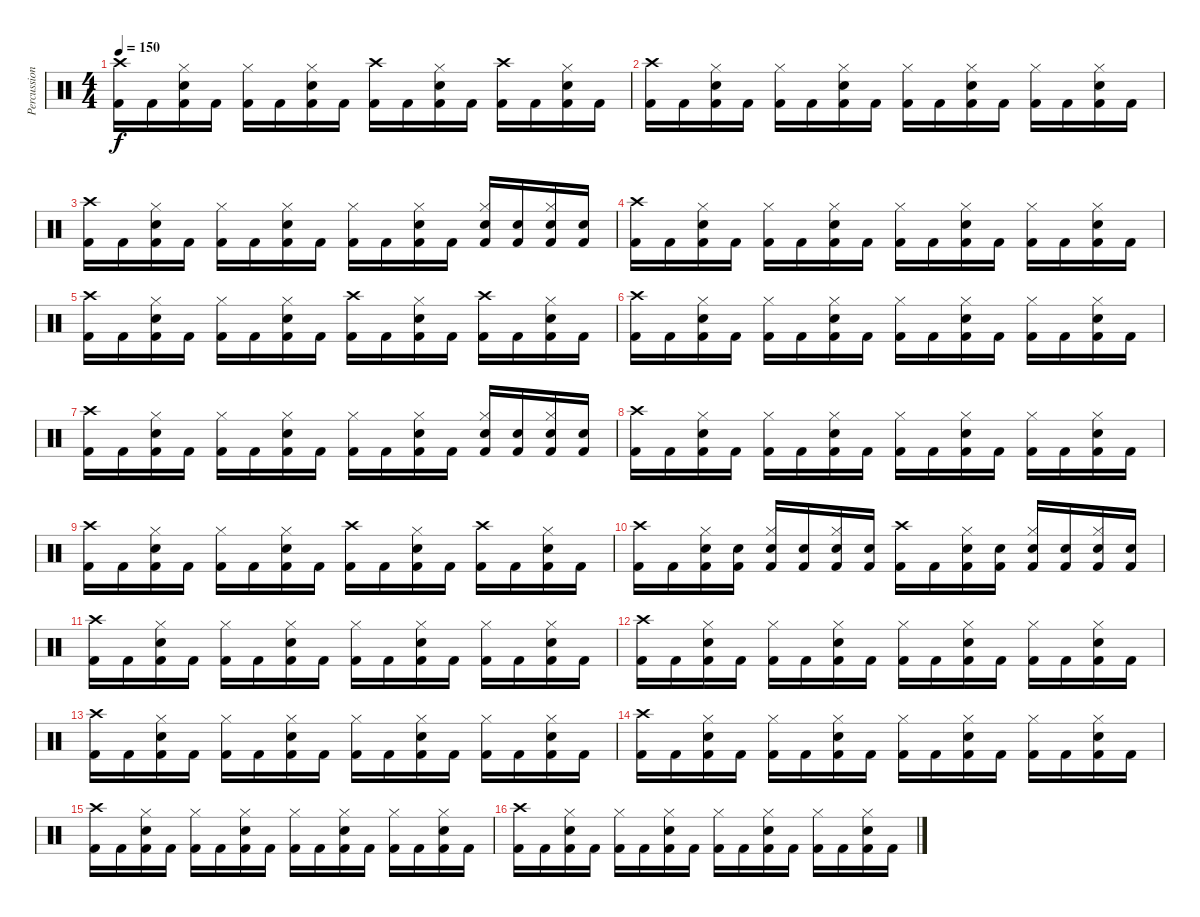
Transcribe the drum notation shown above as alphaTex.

\track ("Percussion" "Percussion") {instrument percussion}
\staff {score}
\articulation defaults
\ts (4 4)
\tempo 150
\clef neutral
\ks c
("Crash high (hit)" "Kick (hit) 2").16{dy f} "Kick (hit) 2".16 ("Hi-Hat (closed)" "Snare (hit) 2" "Kick (hit) 2").16 "Kick (hit) 2".16 ("Hi-Hat (closed)" "Kick (hit) 2").16 "Kick (hit) 2".16 ("Hi-Hat (closed)" "Snare (hit) 2" "Kick (hit) 2").16 "Kick (hit) 2".16 ("Crash high (hit)" "Kick (hit) 2").16 "Kick (hit) 2".16 ("Hi-Hat (closed)" "Snare (hit) 2" "Kick (hit) 2").16 "Kick (hit) 2".16 ("Crash high (hit)" "Kick (hit) 2").16 "Kick (hit) 2".16 ("Hi-Hat (closed)" "Snare (hit) 2" "Kick (hit) 2").16 "Kick (hit) 2".16 |
("Crash high (hit)" "Kick (hit) 2").16 "Kick (hit) 2".16 ("Hi-Hat (closed)" "Snare (hit) 2" "Kick (hit) 2").16 "Kick (hit) 2".16 ("Hi-Hat (closed)" "Kick (hit) 2").16 "Kick (hit) 2".16 ("Hi-Hat (closed)" "Snare (hit) 2" "Kick (hit) 2").16 "Kick (hit) 2".16 ("Hi-Hat (closed)" "Kick (hit) 2").16 "Kick (hit) 2".16 ("Hi-Hat (closed)" "Snare (hit) 2" "Kick (hit) 2").16 "Kick (hit) 2".16 ("Hi-Hat (closed)" "Kick (hit) 2").16 "Kick (hit) 2".16 ("Hi-Hat (closed)" "Snare (hit) 2" "Kick (hit) 2").16 "Kick (hit) 2".16 |
("Crash high (hit)" "Kick (hit) 2").16 "Kick (hit) 2".16 ("Hi-Hat (closed)" "Snare (hit) 2" "Kick (hit) 2").16 "Kick (hit) 2".16 ("Hi-Hat (closed)" "Kick (hit) 2").16 "Kick (hit) 2".16 ("Hi-Hat (closed)" "Snare (hit) 2" "Kick (hit) 2").16 "Kick (hit) 2".16 ("Hi-Hat (closed)" "Kick (hit) 2").16 "Kick (hit) 2".16 ("Hi-Hat (closed)" "Snare (hit) 2" "Kick (hit) 2").16 "Kick (hit) 2".16 ("Hi-Hat (closed)" "Snare (hit) 2" "Kick (hit) 2").16 ("Snare (hit) 2" "Kick (hit) 2").16 ("Hi-Hat (closed)" "Snare (hit) 2" "Kick (hit) 2").16 ("Snare (hit) 2" "Kick (hit) 2").16 |
("Crash high (hit)" "Kick (hit) 2").16 "Kick (hit) 2".16 ("Hi-Hat (closed)" "Snare (hit) 2" "Kick (hit) 2").16 "Kick (hit) 2".16 ("Hi-Hat (closed)" "Kick (hit) 2").16 "Kick (hit) 2".16 ("Hi-Hat (closed)" "Snare (hit) 2" "Kick (hit) 2").16 "Kick (hit) 2".16 ("Hi-Hat (closed)" "Kick (hit) 2").16 "Kick (hit) 2".16 ("Hi-Hat (closed)" "Snare (hit) 2" "Kick (hit) 2").16 "Kick (hit) 2".16 ("Hi-Hat (closed)" "Kick (hit) 2").16 "Kick (hit) 2".16 ("Hi-Hat (closed)" "Snare (hit) 2" "Kick (hit) 2").16 "Kick (hit) 2".16 |
("Crash high (hit)" "Kick (hit) 2").16 "Kick (hit) 2".16 ("Hi-Hat (closed)" "Snare (hit) 2" "Kick (hit) 2").16 "Kick (hit) 2".16 ("Hi-Hat (closed)" "Kick (hit) 2").16 "Kick (hit) 2".16 ("Hi-Hat (closed)" "Snare (hit) 2" "Kick (hit) 2").16 "Kick (hit) 2".16 ("Crash high (hit)" "Kick (hit) 2").16 "Kick (hit) 2".16 ("Hi-Hat (closed)" "Snare (hit) 2" "Kick (hit) 2").16 "Kick (hit) 2".16 ("Crash high (hit)" "Kick (hit) 2").16 "Kick (hit) 2".16 ("Hi-Hat (closed)" "Snare (hit) 2" "Kick (hit) 2").16 "Kick (hit) 2".16 |
("Crash high (hit)" "Kick (hit) 2").16 "Kick (hit) 2".16 ("Hi-Hat (closed)" "Snare (hit) 2" "Kick (hit) 2").16 "Kick (hit) 2".16 ("Hi-Hat (closed)" "Kick (hit) 2").16 "Kick (hit) 2".16 ("Hi-Hat (closed)" "Snare (hit) 2" "Kick (hit) 2").16 "Kick (hit) 2".16 ("Hi-Hat (closed)" "Kick (hit) 2").16 "Kick (hit) 2".16 ("Hi-Hat (closed)" "Snare (hit) 2" "Kick (hit) 2").16 "Kick (hit) 2".16 ("Hi-Hat (closed)" "Kick (hit) 2").16 "Kick (hit) 2".16 ("Hi-Hat (closed)" "Snare (hit) 2" "Kick (hit) 2").16 "Kick (hit) 2".16 |
("Crash high (hit)" "Kick (hit) 2").16 "Kick (hit) 2".16 ("Hi-Hat (closed)" "Snare (hit) 2" "Kick (hit) 2").16 "Kick (hit) 2".16 ("Hi-Hat (closed)" "Kick (hit) 2").16 "Kick (hit) 2".16 ("Hi-Hat (closed)" "Snare (hit) 2" "Kick (hit) 2").16 "Kick (hit) 2".16 ("Hi-Hat (closed)" "Kick (hit) 2").16 "Kick (hit) 2".16 ("Hi-Hat (closed)" "Snare (hit) 2" "Kick (hit) 2").16 "Kick (hit) 2".16 ("Hi-Hat (closed)" "Snare (hit) 2" "Kick (hit) 2").16 ("Snare (hit) 2" "Kick (hit) 2").16 ("Hi-Hat (closed)" "Snare (hit) 2" "Kick (hit) 2").16 ("Snare (hit) 2" "Kick (hit) 2").16 |
("Crash high (hit)" "Kick (hit) 2").16 "Kick (hit) 2".16 ("Hi-Hat (closed)" "Snare (hit) 2" "Kick (hit) 2").16 "Kick (hit) 2".16 ("Hi-Hat (closed)" "Kick (hit) 2").16 "Kick (hit) 2".16 ("Hi-Hat (closed)" "Snare (hit) 2" "Kick (hit) 2").16 "Kick (hit) 2".16 ("Hi-Hat (closed)" "Kick (hit) 2").16 "Kick (hit) 2".16 ("Hi-Hat (closed)" "Snare (hit) 2" "Kick (hit) 2").16 "Kick (hit) 2".16 ("Hi-Hat (closed)" "Kick (hit) 2").16 "Kick (hit) 2".16 ("Hi-Hat (closed)" "Snare (hit) 2" "Kick (hit) 2").16 "Kick (hit) 2".16 |
("Crash high (hit)" "Kick (hit) 2").16 "Kick (hit) 2".16 ("Hi-Hat (closed)" "Snare (hit) 2" "Kick (hit) 2").16 "Kick (hit) 2".16 ("Hi-Hat (closed)" "Kick (hit) 2").16 "Kick (hit) 2".16 ("Hi-Hat (closed)" "Snare (hit) 2" "Kick (hit) 2").16 "Kick (hit) 2".16 ("Crash high (hit)" "Kick (hit) 2").16 "Kick (hit) 2".16 ("Hi-Hat (closed)" "Snare (hit) 2" "Kick (hit) 2").16 "Kick (hit) 2".16 ("Crash high (hit)" "Kick (hit) 2").16 "Kick (hit) 2".16 ("Hi-Hat (closed)" "Snare (hit) 2" "Kick (hit) 2").16 "Kick (hit) 2".16 |
("Crash high (hit)" "Kick (hit) 2").16 "Kick (hit) 2".16 ("Hi-Hat (closed)" "Snare (hit) 2" "Kick (hit) 2").16 ("Snare (hit) 2" "Kick (hit) 2").16 ("Hi-Hat (closed)" "Snare (hit) 2" "Kick (hit) 2").16 ("Snare (hit) 2" "Kick (hit) 2").16 ("Hi-Hat (closed)" "Snare (hit) 2" "Kick (hit) 2").16 ("Snare (hit) 2" "Kick (hit) 2").16 ("Crash high (hit)" "Kick (hit) 2").16 "Kick (hit) 2".16 ("Hi-Hat (closed)" "Snare (hit) 2" "Kick (hit) 2").16 ("Snare (hit) 2" "Kick (hit) 2").16 ("Hi-Hat (closed)" "Snare (hit) 2" "Kick (hit) 2").16 ("Snare (hit) 2" "Kick (hit) 2").16 ("Hi-Hat (closed)" "Snare (hit) 2" "Kick (hit) 2").16 ("Snare (hit) 2" "Kick (hit) 2").16 |
("Crash high (hit)" "Kick (hit) 2").16 "Kick (hit) 2".16 ("Hi-Hat (closed)" "Snare (hit) 2" "Kick (hit) 2").16 "Kick (hit) 2".16 ("Hi-Hat (closed)" "Kick (hit) 2").16 "Kick (hit) 2".16 ("Hi-Hat (closed)" "Snare (hit) 2" "Kick (hit) 2").16 "Kick (hit) 2".16 ("Hi-Hat (closed)" "Kick (hit) 2").16 "Kick (hit) 2".16 ("Hi-Hat (closed)" "Snare (hit) 2" "Kick (hit) 2").16 "Kick (hit) 2".16 ("Hi-Hat (closed)" "Kick (hit) 2").16 "Kick (hit) 2".16 ("Hi-Hat (closed)" "Snare (hit) 2" "Kick (hit) 2").16 "Kick (hit) 2".16 |
("Crash high (hit)" "Kick (hit) 2").16 "Kick (hit) 2".16 ("Hi-Hat (closed)" "Snare (hit) 2" "Kick (hit) 2").16 "Kick (hit) 2".16 ("Hi-Hat (closed)" "Kick (hit) 2").16 "Kick (hit) 2".16 ("Hi-Hat (closed)" "Snare (hit) 2" "Kick (hit) 2").16 "Kick (hit) 2".16 ("Hi-Hat (closed)" "Kick (hit) 2").16 "Kick (hit) 2".16 ("Hi-Hat (closed)" "Snare (hit) 2" "Kick (hit) 2").16 "Kick (hit) 2".16 ("Hi-Hat (closed)" "Kick (hit) 2").16 "Kick (hit) 2".16 ("Hi-Hat (closed)" "Snare (hit) 2" "Kick (hit) 2").16 "Kick (hit) 2".16 |
("Crash high (hit)" "Kick (hit) 2").16 "Kick (hit) 2".16 ("Hi-Hat (closed)" "Snare (hit) 2" "Kick (hit) 2").16 "Kick (hit) 2".16 ("Hi-Hat (closed)" "Kick (hit) 2").16 "Kick (hit) 2".16 ("Hi-Hat (closed)" "Snare (hit) 2" "Kick (hit) 2").16 "Kick (hit) 2".16 ("Hi-Hat (closed)" "Kick (hit) 2").16 "Kick (hit) 2".16 ("Hi-Hat (closed)" "Snare (hit) 2" "Kick (hit) 2").16 "Kick (hit) 2".16 ("Hi-Hat (closed)" "Kick (hit) 2").16 "Kick (hit) 2".16 ("Hi-Hat (closed)" "Snare (hit) 2" "Kick (hit) 2").16 "Kick (hit) 2".16 |
("Crash high (hit)" "Kick (hit) 2").16 "Kick (hit) 2".16 ("Hi-Hat (closed)" "Snare (hit) 2" "Kick (hit) 2").16 "Kick (hit) 2".16 ("Hi-Hat (closed)" "Kick (hit) 2").16 "Kick (hit) 2".16 ("Hi-Hat (closed)" "Snare (hit) 2" "Kick (hit) 2").16 "Kick (hit) 2".16 ("Hi-Hat (closed)" "Kick (hit) 2").16 "Kick (hit) 2".16 ("Hi-Hat (closed)" "Snare (hit) 2" "Kick (hit) 2").16 "Kick (hit) 2".16 ("Hi-Hat (closed)" "Kick (hit) 2").16 "Kick (hit) 2".16 ("Hi-Hat (closed)" "Snare (hit) 2" "Kick (hit) 2").16 "Kick (hit) 2".16 |
("Crash high (hit)" "Kick (hit) 2").16 "Kick (hit) 2".16 ("Hi-Hat (closed)" "Snare (hit) 2" "Kick (hit) 2").16 "Kick (hit) 2".16 ("Hi-Hat (closed)" "Kick (hit) 2").16 "Kick (hit) 2".16 ("Hi-Hat (closed)" "Snare (hit) 2" "Kick (hit) 2").16 "Kick (hit) 2".16 ("Hi-Hat (closed)" "Kick (hit) 2").16 "Kick (hit) 2".16 ("Hi-Hat (closed)" "Snare (hit) 2" "Kick (hit) 2").16 "Kick (hit) 2".16 ("Hi-Hat (closed)" "Kick (hit) 2").16 "Kick (hit) 2".16 ("Hi-Hat (closed)" "Snare (hit) 2" "Kick (hit) 2").16 "Kick (hit) 2".16 |
("Crash high (hit)" "Kick (hit) 2").16 "Kick (hit) 2".16 ("Hi-Hat (closed)" "Snare (hit) 2" "Kick (hit) 2").16 "Kick (hit) 2".16 ("Hi-Hat (closed)" "Kick (hit) 2").16 "Kick (hit) 2".16 ("Hi-Hat (closed)" "Snare (hit) 2" "Kick (hit) 2").16 "Kick (hit) 2".16 ("Hi-Hat (closed)" "Kick (hit) 2").16 "Kick (hit) 2".16 ("Hi-Hat (closed)" "Snare (hit) 2" "Kick (hit) 2").16 "Kick (hit) 2".16 ("Hi-Hat (closed)" "Kick (hit) 2").16 "Kick (hit) 2".16 ("Hi-Hat (closed)" "Snare (hit) 2" "Kick (hit) 2").16 "Kick (hit) 2".16
